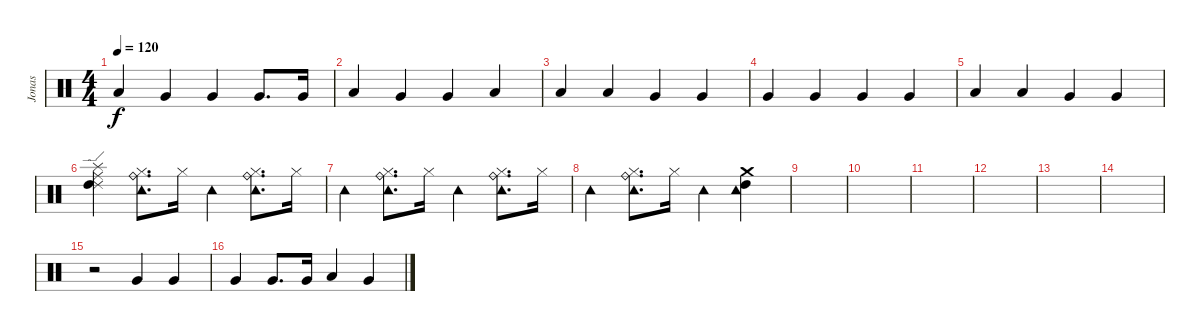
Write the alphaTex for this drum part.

\track ("Jonas" "Jonas") {instrument percussion}
\staff {score}
\articulation defaults
\ts (4 4)
\tempo 120
\clef neutral
\ks c "Low Floor Tom (hit)".4{dy f} "Very Low Tom (hit)".4 "Very Low Tom (hit)".4 "Very Low Tom (hit)".8{d} "Very Low Tom (hit)".16
|
"Low Floor Tom (hit)".4 "Very Low Tom (hit)".4 "Very Low Tom (hit)".4 "Low Floor Tom (hit)".4 |
"Low Floor Tom (hit)".4 "Low Floor Tom (hit)".4 "Very Low Tom (hit)".4 "Very Low Tom (hit)".4 |
"Very Low Tom (hit)".4 "Very Low Tom (hit)".4 "Very Low Tom (hit)".4 "Very Low Tom (hit)".4 |
"Low Floor Tom (hit)".4 "Low Floor Tom (hit)".4 "Very Low Tom (hit)".4 "Very Low Tom (hit)".4 |
("Splash (hit)" "Ride (middle)" "Ride (edge) 2" "High Tom (hit)").4 ("Hi-Hat (closed)" "Tambourine (hit)" "Ride (bell)").8{d} "Hi-Hat (closed)".16 "Tambourine (hit)".4 ("Hi-Hat (closed)" "Tambourine (hit)" "Ride (bell)").8{d} "Hi-Hat (closed)".16 |
"Tambourine (hit)".4 ("Hi-Hat (closed)" "Tambourine (hit)" "Ride (bell)").8{d} "Hi-Hat (closed)".16 "Tambourine (hit)".4 ("Hi-Hat (closed)" "Tambourine (hit)" "Ride (bell)").8{d} "Hi-Hat (closed)".16 |
"Tambourine (hit)".4 ("Hi-Hat (closed)" "Tambourine (hit)" "Ride (bell)").8{d} "Hi-Hat (closed)".16 "Tambourine (hit)".4 ("High Tom (hit)" "Crash medium (hit)" "Tambourine (hit)").4 |
|
|
|
|
|
|
r.2 "Very Low Tom (hit)".4 "Very Low Tom (hit)".4 |
"Very Low Tom (hit)".4 "Very Low Tom (hit)".8{d} "Very Low Tom (hit)".16 "Low Floor Tom (hit)".4 "Very Low Tom (hit)".4
